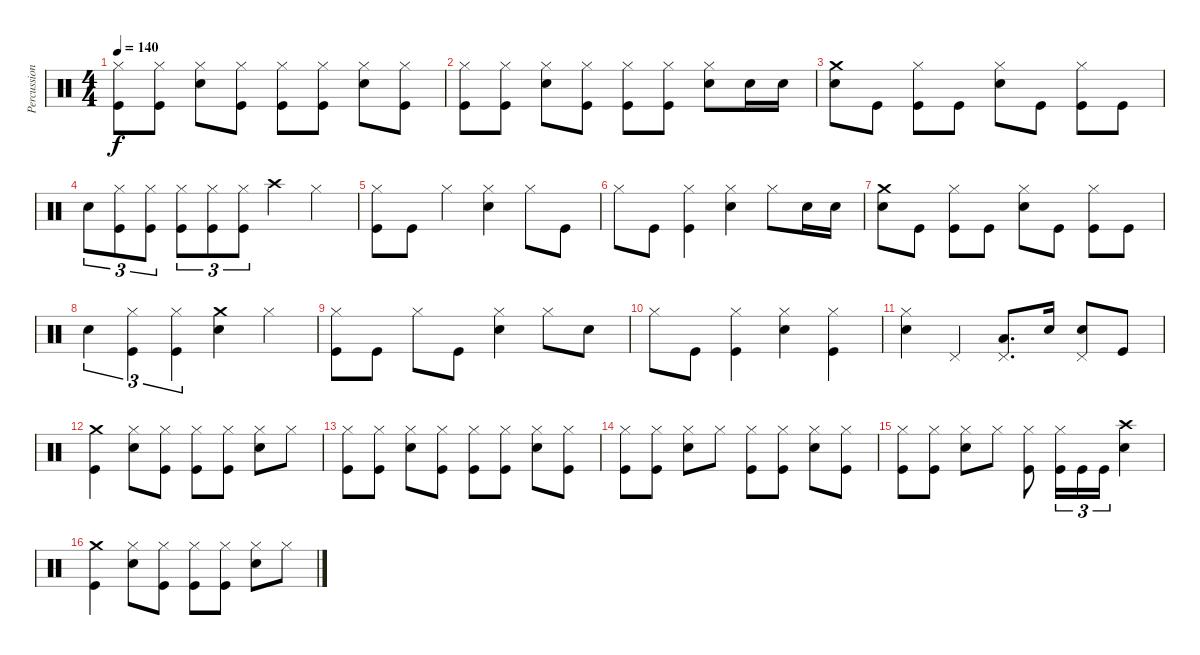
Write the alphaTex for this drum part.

\track ("Percussion" "Percussion") {instrument percussion}
\staff {score}
\articulation defaults
\ts (4 4)
\tempo 140
\clef neutral
\ks c
("Kick (hit)" "Hi-Hat (closed)").8{dy f} ("Kick (hit)" "Hi-Hat (closed)").8 ("Snare (hit) 2" "Hi-Hat (closed)").8 ("Kick (hit)" "Hi-Hat (closed)").8 ("Kick (hit)" "Hi-Hat (closed)").8 ("Kick (hit)" "Hi-Hat (closed)").8 ("Snare (hit) 2" "Hi-Hat (closed)").8 ("Kick (hit)" "Hi-Hat (closed)").8 |
("Kick (hit)" "Hi-Hat (closed)").8 ("Kick (hit)" "Hi-Hat (closed)").8 ("Snare (hit) 2" "Hi-Hat (closed)").8 ("Kick (hit)" "Hi-Hat (closed)").8 ("Kick (hit)" "Hi-Hat (closed)").8 ("Kick (hit)" "Hi-Hat (closed)").8 ("Snare (hit) 2" "Hi-Hat (closed)").8 "Snare (hit) 2".16 "Snare (hit) 2".16 |
("Snare (hit) 2" "Crash medium (hit)").8 "Kick (hit)".8 ("Kick (hit)" "Hi-Hat (closed)").8 "Kick (hit)".8 ("Snare (hit) 2" "Hi-Hat (closed)").8 "Kick (hit)".8 ("Kick (hit)" "Hi-Hat (closed)").8 "Kick (hit)".8 |
"Snare (hit) 2".8{tu (3 2)} ("Kick (hit)" "Hi-Hat (closed)").8{tu (3 2)} ("Kick (hit)" "Hi-Hat (closed)").8{tu (3 2)} ("Kick (hit)" "Hi-Hat (closed)").8{tu (3 2)} ("Kick (hit)" "Hi-Hat (closed)").8{tu (3 2)} ("Kick (hit)" "Hi-Hat (closed)").8{tu (3 2)} "Crash high (hit)".4 "Hi-Hat (closed)".4 |
("Kick (hit)" "Hi-Hat (closed)").8 "Kick (hit)".8 "Hi-Hat (closed)".4 ("Snare (hit) 2" "Hi-Hat (closed)").4 "Hi-Hat (closed)".8 "Kick (hit)".8 |
"Hi-Hat (closed)".8 "Kick (hit)".8 ("Kick (hit)" "Hi-Hat (closed)").4 ("Snare (hit) 2" "Hi-Hat (closed)").4 "Hi-Hat (closed)".8 "Snare (hit) 2".16 "Snare (hit) 2".16 |
("Snare (hit) 2" "Crash medium (hit)").8 "Kick (hit)".8 ("Kick (hit)" "Hi-Hat (closed)").8 "Kick (hit)".8 ("Snare (hit) 2" "Hi-Hat (closed)").8 "Kick (hit)".8 ("Kick (hit)" "Hi-Hat (closed)").8 "Kick (hit)".8 |
"Snare (hit) 2".4{tu (3 2)} ("Kick (hit)" "Hi-Hat (closed)").4{tu (3 2)} ("Kick (hit)" "Hi-Hat (closed)").4{tu (3 2)} ("Snare (hit) 2" "Crash medium (hit)").4 "Hi-Hat (closed)".4 |
("Kick (hit)" "Hi-Hat (closed)").8 "Kick (hit)".8 "Hi-Hat (closed)".8 "Kick (hit)".8 ("Snare (hit) 2" "Hi-Hat (closed)").4 "Hi-Hat (closed)".8 "Snare (hit) 2".8 |
"Hi-Hat (closed)".8 "Kick (hit)".8 ("Kick (hit)" "Hi-Hat (closed)").4 ("Snare (hit) 2" "Hi-Hat (closed)").4 ("Kick (hit)" "Hi-Hat (closed)").4 |
("Snare (hit) 2" "Hi-Hat (closed)").4 "Pedal Hi-Hat (hit)".4 ("Low Tom (hit)" "Pedal Hi-Hat (hit)").8{d} "Snare (hit) 2".16 ("Snare (hit) 2" "Pedal Hi-Hat (hit)").8 "Kick (hit)".8 |
("Kick (hit)" "Crash medium (hit)").4 ("Snare (hit) 2" "Hi-Hat (closed)").8 ("Kick (hit)" "Hi-Hat (closed)").8 ("Kick (hit)" "Hi-Hat (closed)").8 ("Kick (hit)" "Hi-Hat (closed)").8 ("Snare (hit) 2" "Hi-Hat (closed)").8 "Hi-Hat (closed)".8 |
("Kick (hit)" "Hi-Hat (closed)").8 ("Kick (hit)" "Hi-Hat (closed)").8 ("Snare (hit) 2" "Hi-Hat (closed)").8 ("Kick (hit)" "Hi-Hat (closed)").8 ("Kick (hit)" "Hi-Hat (closed)").8 ("Kick (hit)" "Hi-Hat (closed)").8 ("Snare (hit) 2" "Hi-Hat (closed)").8 ("Kick (hit)" "Hi-Hat (closed)").8 |
("Kick (hit)" "Hi-Hat (closed)").8 ("Kick (hit)" "Hi-Hat (closed)").8 ("Snare (hit) 2" "Hi-Hat (closed)").8 "Hi-Hat (closed)".8 ("Kick (hit)" "Hi-Hat (closed)").8 ("Kick (hit)" "Hi-Hat (closed)").8 ("Snare (hit) 2" "Hi-Hat (closed)").8 ("Kick (hit)" "Hi-Hat (closed)").8 |
("Kick (hit)" "Hi-Hat (closed)").8 ("Kick (hit)" "Hi-Hat (closed)").8 ("Snare (hit) 2" "Hi-Hat (closed)").8 "Hi-Hat (closed)".8 ("Kick (hit)" "Hi-Hat (closed)").8 ("Kick (hit)" "Hi-Hat (closed)").16{tu (3 2)} "Kick (hit)".16{tu (3 2)} "Kick (hit)".16{tu (3 2)} ("Snare (hit) 2" "Crash high (hit)").4 |
("Kick (hit)" "Crash medium (hit)").4 ("Snare (hit) 2" "Hi-Hat (closed)").8 ("Kick (hit)" "Hi-Hat (closed)").8 ("Kick (hit)" "Hi-Hat (closed)").8 ("Kick (hit)" "Hi-Hat (closed)").8 ("Snare (hit) 2" "Hi-Hat (closed)").8 "Hi-Hat (closed)".8
